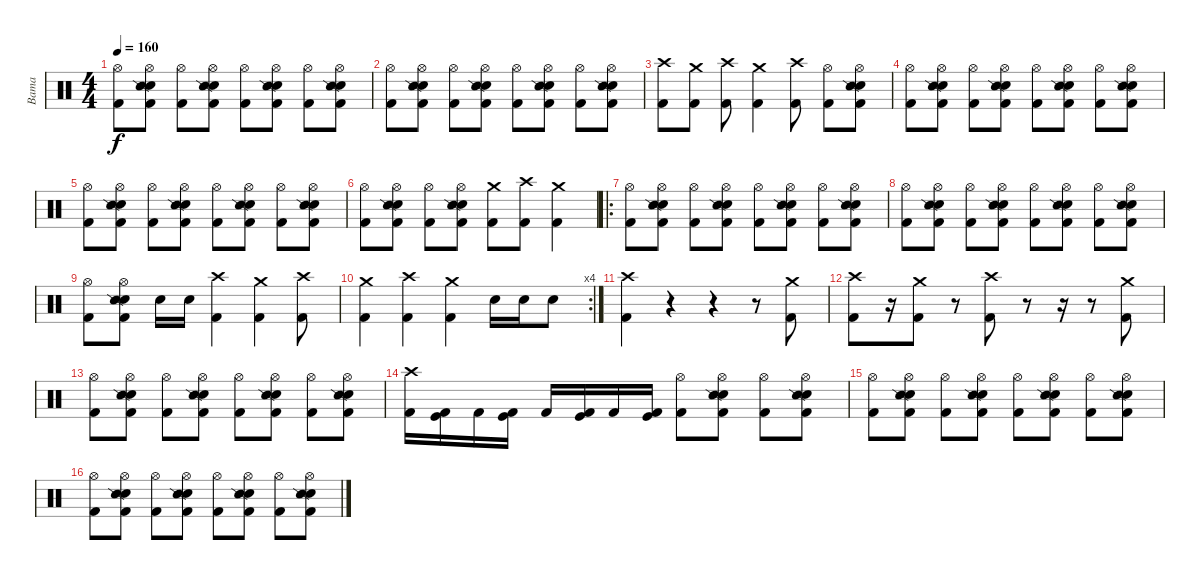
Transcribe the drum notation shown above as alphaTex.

\track ("Bama" "Bama") {instrument percussion}
\staff {score}
\articulation defaults
\ts (4 4)
\tempo 160
\clef neutral
\ks c
("Hi-Hat (open)" "Kick (hit) 2").8{dy f} ("Hi-Hat (open)" "Electric Snare (hit)" "Snare (side stick) 2" "Kick (hit) 2").8 ("Hi-Hat (open)" "Kick (hit) 2").8 ("Hi-Hat (open)" "Electric Snare (hit)" "Snare (side stick) 2" "Kick (hit) 2").8 ("Hi-Hat (open)" "Kick (hit) 2").8 ("Hi-Hat (open)" "Electric Snare (hit)" "Snare (side stick) 2" "Kick (hit) 2").8 ("Hi-Hat (open)" "Kick (hit) 2").8 ("Hi-Hat (open)" "Electric Snare (hit)" "Snare (side stick) 2" "Kick (hit) 2").8 |
("Hi-Hat (open)" "Kick (hit) 2").8 ("Hi-Hat (open)" "Electric Snare (hit)" "Snare (side stick) 2" "Kick (hit) 2").8 ("Hi-Hat (open)" "Kick (hit) 2").8 ("Hi-Hat (open)" "Electric Snare (hit)" "Snare (side stick) 2" "Kick (hit) 2").8 ("Hi-Hat (open)" "Kick (hit) 2").8 ("Hi-Hat (open)" "Electric Snare (hit)" "Snare (side stick) 2" "Kick (hit) 2").8 ("Hi-Hat (open)" "Kick (hit) 2").8 ("Hi-Hat (open)" "Electric Snare (hit)" "Snare (side stick) 2" "Kick (hit) 2").8 |
("Crash high (hit)" "Kick (hit) 2").8 ("Crash medium (hit)" "Kick (hit) 2").8 ("Crash high (hit)" "Kick (hit) 2").8 ("Crash medium (hit)" "Kick (hit) 2").4 ("Crash high (hit)" "Kick (hit) 2").8 ("Hi-Hat (open)" "Kick (hit) 2").8 ("Hi-Hat (open)" "Electric Snare (hit)" "Snare (side stick) 2" "Kick (hit) 2").8 |
("Hi-Hat (open)" "Kick (hit) 2").8 ("Hi-Hat (open)" "Electric Snare (hit)" "Snare (side stick) 2" "Kick (hit) 2").8 ("Hi-Hat (open)" "Kick (hit) 2").8 ("Hi-Hat (open)" "Electric Snare (hit)" "Snare (side stick) 2" "Kick (hit) 2").8 ("Hi-Hat (open)" "Kick (hit) 2").8 ("Hi-Hat (open)" "Electric Snare (hit)" "Snare (side stick) 2" "Kick (hit) 2").8 ("Hi-Hat (open)" "Kick (hit) 2").8 ("Hi-Hat (open)" "Electric Snare (hit)" "Snare (side stick) 2" "Kick (hit) 2").8 |
("Hi-Hat (open)" "Kick (hit) 2").8 ("Hi-Hat (open)" "Electric Snare (hit)" "Snare (side stick) 2" "Kick (hit) 2").8 ("Hi-Hat (open)" "Kick (hit) 2").8 ("Hi-Hat (open)" "Electric Snare (hit)" "Snare (side stick) 2" "Kick (hit) 2").8 ("Hi-Hat (open)" "Kick (hit) 2").8 ("Hi-Hat (open)" "Electric Snare (hit)" "Snare (side stick) 2" "Kick (hit) 2").8 ("Hi-Hat (open)" "Kick (hit) 2").8 ("Hi-Hat (open)" "Electric Snare (hit)" "Snare (side stick) 2" "Kick (hit) 2").8 |
("Hi-Hat (open)" "Kick (hit) 2").8 ("Hi-Hat (open)" "Electric Snare (hit)" "Snare (side stick) 2" "Kick (hit) 2").8 ("Hi-Hat (open)" "Kick (hit) 2").8 ("Hi-Hat (open)" "Electric Snare (hit)" "Snare (side stick) 2" "Kick (hit) 2").8 ("Crash medium (hit)" "Kick (hit) 2").8 ("Crash high (hit)" "Kick (hit) 2").8 ("Crash medium (hit)" "Kick (hit) 2").4 |
\ro
("Hi-Hat (open)" "Kick (hit) 2").8 ("Hi-Hat (open)" "Electric Snare (hit)" "Snare (side stick) 2" "Kick (hit) 2").8 ("Hi-Hat (open)" "Kick (hit) 2").8 ("Hi-Hat (open)" "Electric Snare (hit)" "Snare (side stick) 2" "Kick (hit) 2").8 ("Hi-Hat (open)" "Kick (hit) 2").8 ("Hi-Hat (open)" "Electric Snare (hit)" "Snare (side stick) 2" "Kick (hit) 2").8 ("Hi-Hat (open)" "Kick (hit) 2").8 ("Hi-Hat (open)" "Electric Snare (hit)" "Snare (side stick) 2" "Kick (hit) 2").8 |
("Hi-Hat (open)" "Kick (hit) 2").8 ("Hi-Hat (open)" "Electric Snare (hit)" "Snare (side stick) 2" "Kick (hit) 2").8 ("Hi-Hat (open)" "Kick (hit) 2").8 ("Hi-Hat (open)" "Electric Snare (hit)" "Snare (side stick) 2" "Kick (hit) 2").8 ("Hi-Hat (open)" "Kick (hit) 2").8 ("Hi-Hat (open)" "Electric Snare (hit)" "Snare (side stick) 2" "Kick (hit) 2").8 ("Hi-Hat (open)" "Kick (hit) 2").8 ("Hi-Hat (open)" "Electric Snare (hit)" "Snare (side stick) 2" "Kick (hit) 2").8 |
("Hi-Hat (open)" "Kick (hit) 2").8 ("Hi-Hat (open)" "Electric Snare (hit)" "Snare (side stick) 2" "Kick (hit) 2").8 "Electric Snare (hit)".16 "Electric Snare (hit)".16 ("Crash high (hit)" "Kick (hit) 2").4 ("Crash medium (hit)" "Kick (hit) 2").4 ("Crash high (hit)" "Kick (hit) 2").8 |
\rc 4
("Crash medium (hit)" "Kick (hit) 2").4 ("Crash high (hit)" "Kick (hit) 2").4 ("Crash medium (hit)" "Kick (hit) 2").4 "Electric Snare (hit)".16 "Electric Snare (hit)".16 "Electric Snare (hit)".8 |
("Crash high (hit)" "Kick (hit) 2").4 r.4 r.4 r.8 ("Crash medium (hit)" "Kick (hit) 2").8 |
("Crash high (hit)" "Kick (hit) 2").8 r.16 ("Crash medium (hit)" "Kick (hit) 2").8 r.8 ("Crash high (hit)" "Kick (hit) 2").8 r.8 r.16 r.8 ("Crash medium (hit)" "Kick (hit) 2").8 |
("Hi-Hat (open)" "Kick (hit) 2").8 ("Hi-Hat (open)" "Electric Snare (hit)" "Snare (side stick) 2" "Kick (hit) 2").8 ("Hi-Hat (open)" "Kick (hit) 2").8 ("Hi-Hat (open)" "Electric Snare (hit)" "Snare (side stick) 2" "Kick (hit) 2").8 ("Hi-Hat (open)" "Kick (hit) 2").8 ("Hi-Hat (open)" "Electric Snare (hit)" "Snare (side stick) 2" "Kick (hit) 2").8 ("Hi-Hat (open)" "Kick (hit) 2").8 ("Hi-Hat (open)" "Electric Snare (hit)" "Snare (side stick) 2" "Kick (hit) 2").8 |
("Crash high (hit)" "Kick (hit) 2").16 ("Kick (hit)" "Kick (hit) 2").16 "Kick (hit) 2".16 ("Kick (hit)" "Kick (hit) 2").16 "Kick (hit) 2".16 ("Kick (hit)" "Kick (hit) 2").16 "Kick (hit) 2".16 ("Kick (hit)" "Kick (hit) 2").16 ("Hi-Hat (open)" "Kick (hit) 2").8 ("Hi-Hat (open)" "Electric Snare (hit)" "Snare (side stick) 2" "Kick (hit) 2").8 ("Hi-Hat (open)" "Kick (hit) 2").8 ("Hi-Hat (open)" "Electric Snare (hit)" "Snare (side stick) 2" "Kick (hit) 2").8 |
("Hi-Hat (open)" "Kick (hit) 2").8 ("Hi-Hat (open)" "Electric Snare (hit)" "Snare (side stick) 2" "Kick (hit) 2").8 ("Hi-Hat (open)" "Kick (hit) 2").8 ("Hi-Hat (open)" "Electric Snare (hit)" "Snare (side stick) 2" "Kick (hit) 2").8 ("Hi-Hat (open)" "Kick (hit) 2").8 ("Hi-Hat (open)" "Electric Snare (hit)" "Snare (side stick) 2" "Kick (hit) 2").8 ("Hi-Hat (open)" "Kick (hit) 2").8 ("Hi-Hat (open)" "Electric Snare (hit)" "Snare (side stick) 2" "Kick (hit) 2").8 |
("Hi-Hat (open)" "Kick (hit) 2").8 ("Hi-Hat (open)" "Electric Snare (hit)" "Snare (side stick) 2" "Kick (hit) 2").8 ("Hi-Hat (open)" "Kick (hit) 2").8 ("Hi-Hat (open)" "Electric Snare (hit)" "Snare (side stick) 2" "Kick (hit) 2").8 ("Hi-Hat (open)" "Kick (hit) 2").8 ("Hi-Hat (open)" "Electric Snare (hit)" "Snare (side stick) 2" "Kick (hit) 2").8 ("Hi-Hat (open)" "Kick (hit) 2").8 ("Hi-Hat (open)" "Electric Snare (hit)" "Snare (side stick) 2" "Kick (hit) 2").8
